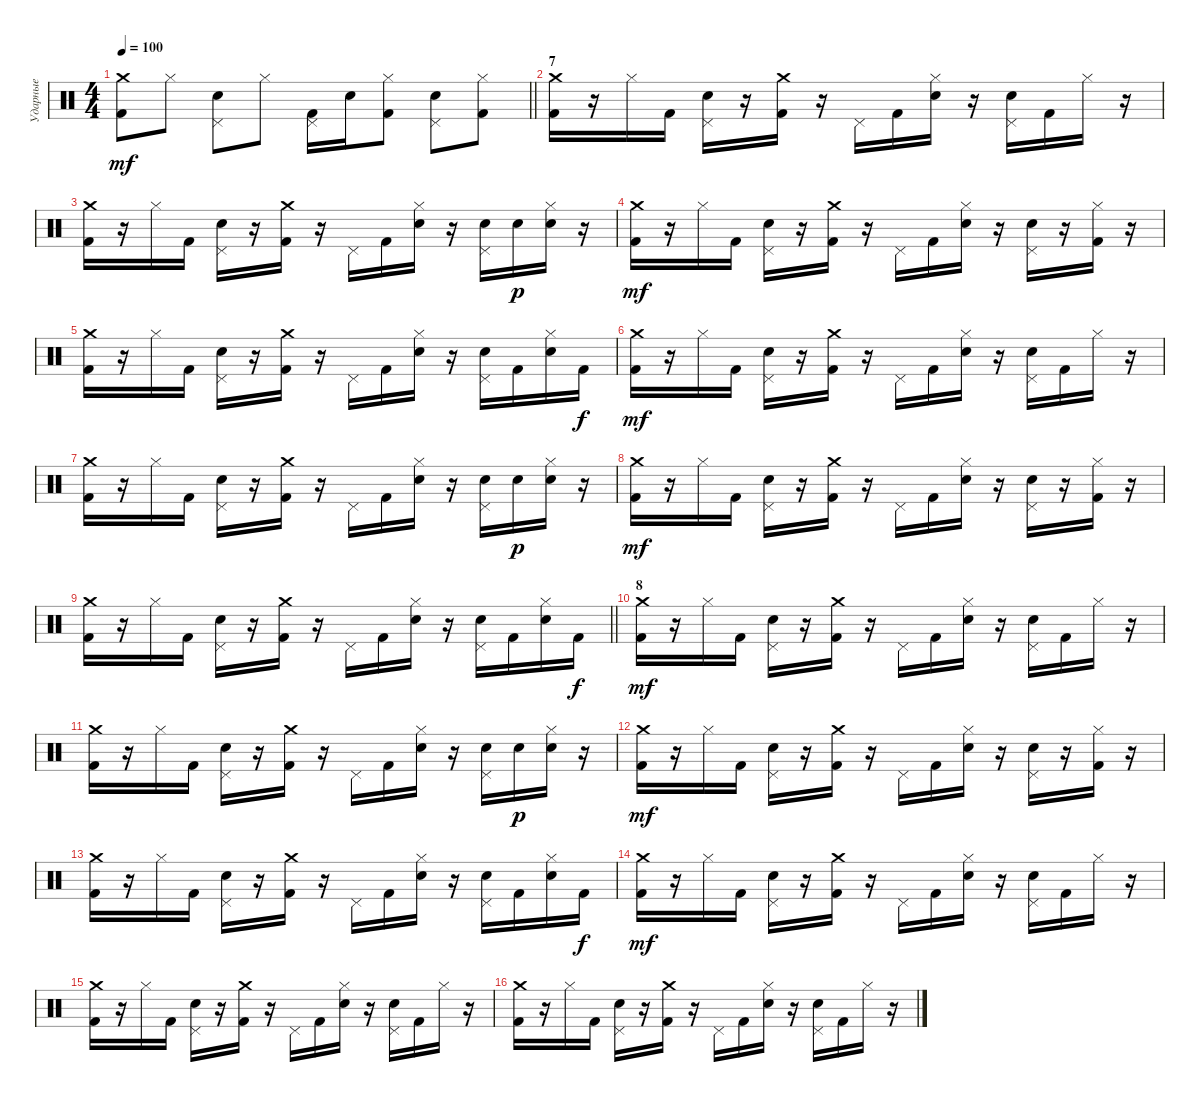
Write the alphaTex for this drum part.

\track ("Ударные" "Ударные") {instrument percussion}
\staff {score}
\articulation defaults
\ts (4 4)
\tempo 100
\clef neutral
\barLineRight lightlight
\ks c
("Crash medium (hit)" "Kick (hit) 2").8{dy mf} "Hi-Hat (closed)".8 ("Pedal Hi-Hat (hit)" "Snare (hit) 2").8 "Hi-Hat (closed)".8 ("Pedal Hi-Hat (hit)" "Kick (hit) 2").16 "Snare (hit) 2".16 ("Hi-Hat (closed)" "Kick (hit) 2").8 ("Pedal Hi-Hat (hit)" "Snare (hit) 2").8 ("Hi-Hat (closed)" "Kick (hit) 2").8 |
\section ("" "7")
("Crash medium (hit)" "Kick (hit) 2").16 r.16 "Hi-Hat (closed)".16 "Kick (hit) 2".16 ("Pedal Hi-Hat (hit)" "Snare (hit) 2").16 r.16 ("Crash medium (hit)" "Kick (hit) 2").16 r.16 "Pedal Hi-Hat (hit)".16 "Kick (hit) 2".16 ("Hi-Hat (closed)" "Snare (hit) 2").16 r.16 ("Pedal Hi-Hat (hit)" "Snare (hit) 2").16 "Kick (hit) 2".16 "Hi-Hat (closed)".16 r.16 |
("Crash medium (hit)" "Kick (hit) 2").16 r.16 "Hi-Hat (closed)".16 "Kick (hit) 2".16 ("Pedal Hi-Hat (hit)" "Snare (hit) 2").16 r.16 ("Crash medium (hit)" "Kick (hit) 2").16 r.16 "Pedal Hi-Hat (hit)".16 "Kick (hit) 2".16 ("Hi-Hat (closed)" "Snare (hit) 2").16 r.16 ("Pedal Hi-Hat (hit)" "Snare (hit) 2").16 "Snare (hit) 2".16{dy p} ("Hi-Hat (closed)" "Snare (hit) 2").16 r.16 |
("Crash medium (hit)" "Kick (hit) 2").16{dy mf} r.16 "Hi-Hat (closed)".16 "Kick (hit) 2".16 ("Pedal Hi-Hat (hit)" "Snare (hit) 2").16 r.16 ("Crash medium (hit)" "Kick (hit) 2").16 r.16 "Pedal Hi-Hat (hit)".16 "Kick (hit) 2".16 ("Hi-Hat (closed)" "Snare (hit) 2").16 r.16 ("Pedal Hi-Hat (hit)" "Snare (hit) 2").16 r.16 ("Hi-Hat (closed)" "Kick (hit) 2").16 r.16 |
("Crash medium (hit)" "Kick (hit) 2").16 r.16 "Hi-Hat (closed)".16 "Kick (hit) 2".16 ("Pedal Hi-Hat (hit)" "Snare (hit) 2").16 r.16 ("Crash medium (hit)" "Kick (hit) 2").16 r.16 "Pedal Hi-Hat (hit)".16 "Kick (hit) 2".16 ("Hi-Hat (closed)" "Snare (hit) 2").16 r.16 ("Pedal Hi-Hat (hit)" "Snare (hit) 2").16 "Kick (hit) 2".16 ("Hi-Hat (closed)" "Snare (hit) 2").16 "Kick (hit) 2".16{dy f} |
("Crash medium (hit)" "Kick (hit) 2").16{dy mf} r.16 "Hi-Hat (closed)".16 "Kick (hit) 2".16 ("Pedal Hi-Hat (hit)" "Snare (hit) 2").16 r.16 ("Crash medium (hit)" "Kick (hit) 2").16 r.16 "Pedal Hi-Hat (hit)".16 "Kick (hit) 2".16 ("Hi-Hat (closed)" "Snare (hit) 2").16 r.16 ("Pedal Hi-Hat (hit)" "Snare (hit) 2").16 "Kick (hit) 2".16 "Hi-Hat (closed)".16 r.16 |
("Crash medium (hit)" "Kick (hit) 2").16 r.16 "Hi-Hat (closed)".16 "Kick (hit) 2".16 ("Pedal Hi-Hat (hit)" "Snare (hit) 2").16 r.16 ("Crash medium (hit)" "Kick (hit) 2").16 r.16 "Pedal Hi-Hat (hit)".16 "Kick (hit) 2".16 ("Hi-Hat (closed)" "Snare (hit) 2").16 r.16 ("Pedal Hi-Hat (hit)" "Snare (hit) 2").16 "Snare (hit) 2".16{dy p} ("Hi-Hat (closed)" "Snare (hit) 2").16 r.16 |
("Crash medium (hit)" "Kick (hit) 2").16{dy mf} r.16 "Hi-Hat (closed)".16 "Kick (hit) 2".16 ("Pedal Hi-Hat (hit)" "Snare (hit) 2").16 r.16 ("Crash medium (hit)" "Kick (hit) 2").16 r.16 "Pedal Hi-Hat (hit)".16 "Kick (hit) 2".16 ("Hi-Hat (closed)" "Snare (hit) 2").16 r.16 ("Pedal Hi-Hat (hit)" "Snare (hit) 2").16 r.16 ("Hi-Hat (closed)" "Kick (hit) 2").16 r.16 |
\barLineRight lightlight
("Crash medium (hit)" "Kick (hit) 2").16 r.16 "Hi-Hat (closed)".16 "Kick (hit) 2".16 ("Pedal Hi-Hat (hit)" "Snare (hit) 2").16 r.16 ("Crash medium (hit)" "Kick (hit) 2").16 r.16 "Pedal Hi-Hat (hit)".16 "Kick (hit) 2".16 ("Hi-Hat (closed)" "Snare (hit) 2").16 r.16 ("Pedal Hi-Hat (hit)" "Snare (hit) 2").16 "Kick (hit) 2".16 ("Hi-Hat (closed)" "Snare (hit) 2").16 "Kick (hit) 2".16{dy f} |
\section ("" "8")
("Crash medium (hit)" "Kick (hit) 2").16{dy mf} r.16 "Hi-Hat (closed)".16 "Kick (hit) 2".16 ("Pedal Hi-Hat (hit)" "Snare (hit) 2").16 r.16 ("Crash medium (hit)" "Kick (hit) 2").16 r.16 "Pedal Hi-Hat (hit)".16 "Kick (hit) 2".16 ("Hi-Hat (closed)" "Snare (hit) 2").16 r.16 ("Pedal Hi-Hat (hit)" "Snare (hit) 2").16 "Kick (hit) 2".16 "Hi-Hat (closed)".16 r.16 |
("Crash medium (hit)" "Kick (hit) 2").16 r.16 "Hi-Hat (closed)".16 "Kick (hit) 2".16 ("Pedal Hi-Hat (hit)" "Snare (hit) 2").16 r.16 ("Crash medium (hit)" "Kick (hit) 2").16 r.16 "Pedal Hi-Hat (hit)".16 "Kick (hit) 2".16 ("Hi-Hat (closed)" "Snare (hit) 2").16 r.16 ("Pedal Hi-Hat (hit)" "Snare (hit) 2").16 "Snare (hit) 2".16{dy p} ("Hi-Hat (closed)" "Snare (hit) 2").16 r.16 |
("Crash medium (hit)" "Kick (hit) 2").16{dy mf} r.16 "Hi-Hat (closed)".16 "Kick (hit) 2".16 ("Pedal Hi-Hat (hit)" "Snare (hit) 2").16 r.16 ("Crash medium (hit)" "Kick (hit) 2").16 r.16 "Pedal Hi-Hat (hit)".16 "Kick (hit) 2".16 ("Hi-Hat (closed)" "Snare (hit) 2").16 r.16 ("Pedal Hi-Hat (hit)" "Snare (hit) 2").16 r.16 ("Hi-Hat (closed)" "Kick (hit) 2").16 r.16 |
("Crash medium (hit)" "Kick (hit) 2").16 r.16 "Hi-Hat (closed)".16 "Kick (hit) 2".16 ("Pedal Hi-Hat (hit)" "Snare (hit) 2").16 r.16 ("Crash medium (hit)" "Kick (hit) 2").16 r.16 "Pedal Hi-Hat (hit)".16 "Kick (hit) 2".16 ("Hi-Hat (closed)" "Snare (hit) 2").16 r.16 ("Pedal Hi-Hat (hit)" "Snare (hit) 2").16 "Kick (hit) 2".16 ("Hi-Hat (closed)" "Snare (hit) 2").16 "Kick (hit) 2".16{dy f} |
("Crash medium (hit)" "Kick (hit) 2").16{dy mf} r.16 "Hi-Hat (closed)".16 "Kick (hit) 2".16 ("Pedal Hi-Hat (hit)" "Snare (hit) 2").16 r.16 ("Crash medium (hit)" "Kick (hit) 2").16 r.16 "Pedal Hi-Hat (hit)".16 "Kick (hit) 2".16 ("Hi-Hat (closed)" "Snare (hit) 2").16 r.16 ("Pedal Hi-Hat (hit)" "Snare (hit) 2").16 "Kick (hit) 2".16 "Hi-Hat (closed)".16 r.16 |
("Crash medium (hit)" "Kick (hit) 2").16 r.16 "Hi-Hat (closed)".16 "Kick (hit) 2".16 ("Pedal Hi-Hat (hit)" "Snare (hit) 2").16 r.16 ("Crash medium (hit)" "Kick (hit) 2").16 r.16 "Pedal Hi-Hat (hit)".16 "Kick (hit) 2".16 ("Hi-Hat (closed)" "Snare (hit) 2").16 r.16 ("Pedal Hi-Hat (hit)" "Snare (hit) 2").16 "Kick (hit) 2".16 "Hi-Hat (closed)".16 r.16 |
("Crash medium (hit)" "Kick (hit) 2").16 r.16 "Hi-Hat (closed)".16 "Kick (hit) 2".16 ("Pedal Hi-Hat (hit)" "Snare (hit) 2").16 r.16 ("Crash medium (hit)" "Kick (hit) 2").16 r.16 "Pedal Hi-Hat (hit)".16 "Kick (hit) 2".16 ("Hi-Hat (closed)" "Snare (hit) 2").16 r.16 ("Pedal Hi-Hat (hit)" "Snare (hit) 2").16 "Kick (hit) 2".16 "Hi-Hat (closed)".16 r.16
